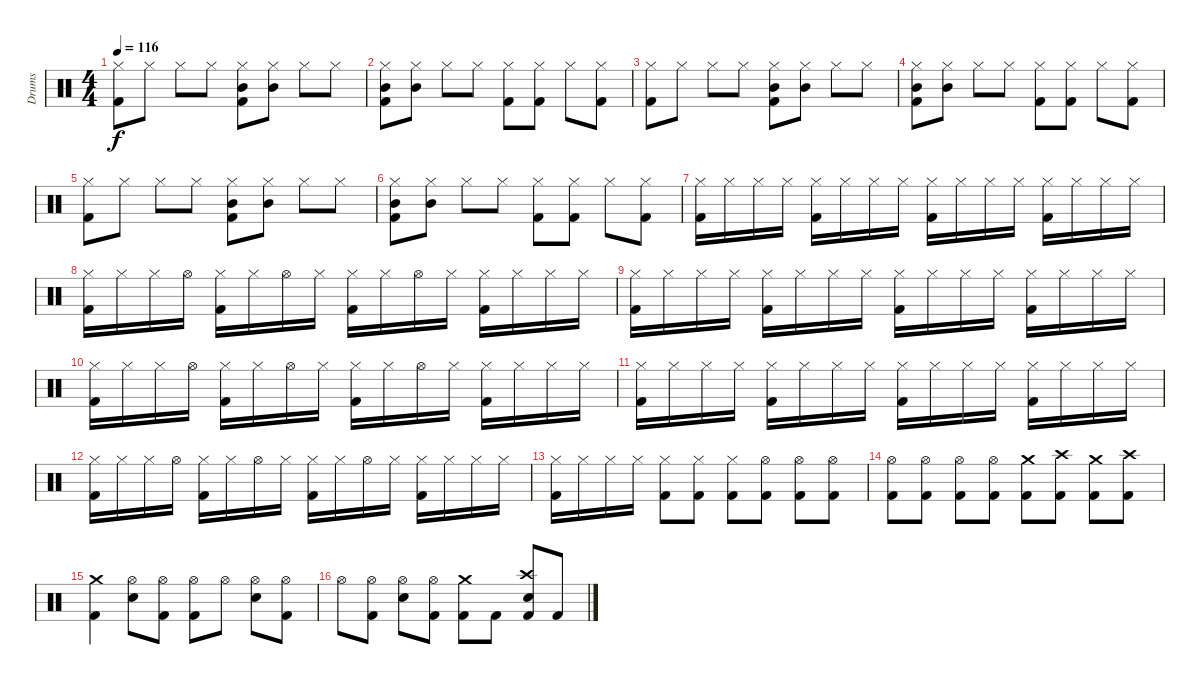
\track ("Drums" "Drums") {instrument percussion}
\staff {score}
\articulation defaults
\ts (4 4)
\tempo 116
\clef neutral
\ks c
("Kick (hit) 2" "Hi-Hat (closed)").8{dy f} "Hi-Hat (closed)".8 "Hi-Hat (closed)".8 "Hi-Hat (closed)".8 ("Kick (hit) 2" "Mid Tom (hit)" "Hi-Hat (closed)").8 ("Mid Tom (hit)" "Hi-Hat (closed)").8 "Hi-Hat (closed)".8 "Hi-Hat (closed)".8 |
("Kick (hit) 2" "Mid Tom (hit)" "Hi-Hat (closed)").8 ("Mid Tom (hit)" "Hi-Hat (closed)").8 "Hi-Hat (closed)".8 "Hi-Hat (closed)".8 ("Kick (hit) 2" "Hi-Hat (closed)").8 ("Kick (hit) 2" "Hi-Hat (closed)").8 "Hi-Hat (closed)".8 ("Kick (hit) 2" "Hi-Hat (closed)").8 |
("Kick (hit) 2" "Hi-Hat (closed)").8 "Hi-Hat (closed)".8 "Hi-Hat (closed)".8 "Hi-Hat (closed)".8 ("Kick (hit) 2" "Mid Tom (hit)" "Hi-Hat (closed)").8 ("Mid Tom (hit)" "Hi-Hat (closed)").8 "Hi-Hat (closed)".8 "Hi-Hat (closed)".8 |
("Kick (hit) 2" "Mid Tom (hit)" "Hi-Hat (closed)").8 ("Mid Tom (hit)" "Hi-Hat (closed)").8 "Hi-Hat (closed)".8 "Hi-Hat (closed)".8 ("Kick (hit) 2" "Hi-Hat (closed)").8 ("Kick (hit) 2" "Hi-Hat (closed)").8 "Hi-Hat (closed)".8 ("Kick (hit) 2" "Hi-Hat (closed)").8 |
("Kick (hit) 2" "Hi-Hat (closed)").8 "Hi-Hat (closed)".8 "Hi-Hat (closed)".8 "Hi-Hat (closed)".8 ("Kick (hit) 2" "Mid Tom (hit)" "Hi-Hat (closed)").8 ("Mid Tom (hit)" "Hi-Hat (closed)").8 "Hi-Hat (closed)".8 "Hi-Hat (closed)".8 |
("Kick (hit) 2" "Mid Tom (hit)" "Hi-Hat (closed)").8 ("Mid Tom (hit)" "Hi-Hat (closed)").8 "Hi-Hat (closed)".8 "Hi-Hat (closed)".8 ("Kick (hit) 2" "Hi-Hat (closed)").8 ("Kick (hit) 2" "Hi-Hat (closed)").8 "Hi-Hat (closed)".8 ("Kick (hit) 2" "Hi-Hat (closed)").8 |
("Kick (hit) 2" "Hi-Hat (closed)").16 "Hi-Hat (closed)".16 "Hi-Hat (closed)".16 "Hi-Hat (closed)".16 ("Kick (hit) 2" "Hi-Hat (closed)").16 "Hi-Hat (closed)".16 "Hi-Hat (closed)".16 "Hi-Hat (closed)".16 ("Kick (hit) 2" "Hi-Hat (closed)").16 "Hi-Hat (closed)".16 "Hi-Hat (closed)".16 "Hi-Hat (closed)".16 ("Kick (hit) 2" "Hi-Hat (closed)").16 "Hi-Hat (closed)".16 "Hi-Hat (closed)".16 "Hi-Hat (closed)".16 |
("Kick (hit) 2" "Hi-Hat (closed)").16 "Hi-Hat (closed)".16 "Hi-Hat (closed)".16 "Hi-Hat (open)".16 ("Kick (hit) 2" "Hi-Hat (closed)").16 "Hi-Hat (closed)".16 "Hi-Hat (open)".16 "Hi-Hat (closed)".16 ("Kick (hit) 2" "Hi-Hat (closed)").16 "Hi-Hat (closed)".16 "Hi-Hat (open)".16 "Hi-Hat (closed)".16 ("Kick (hit) 2" "Hi-Hat (closed)").16 "Hi-Hat (closed)".16 "Hi-Hat (closed)".16 "Hi-Hat (closed)".16 |
("Kick (hit) 2" "Hi-Hat (closed)").16 "Hi-Hat (closed)".16 "Hi-Hat (closed)".16 "Hi-Hat (closed)".16 ("Kick (hit) 2" "Hi-Hat (closed)").16 "Hi-Hat (closed)".16 "Hi-Hat (closed)".16 "Hi-Hat (closed)".16 ("Kick (hit) 2" "Hi-Hat (closed)").16 "Hi-Hat (closed)".16 "Hi-Hat (closed)".16 "Hi-Hat (closed)".16 ("Kick (hit) 2" "Hi-Hat (closed)").16 "Hi-Hat (closed)".16 "Hi-Hat (closed)".16 "Hi-Hat (closed)".16 |
("Kick (hit) 2" "Hi-Hat (closed)").16 "Hi-Hat (closed)".16 "Hi-Hat (closed)".16 "Hi-Hat (open)".16 ("Kick (hit) 2" "Hi-Hat (closed)").16 "Hi-Hat (closed)".16 "Hi-Hat (open)".16 "Hi-Hat (closed)".16 ("Kick (hit) 2" "Hi-Hat (closed)").16 "Hi-Hat (closed)".16 "Hi-Hat (open)".16 "Hi-Hat (closed)".16 ("Kick (hit) 2" "Hi-Hat (closed)").16 "Hi-Hat (closed)".16 "Hi-Hat (closed)".16 "Hi-Hat (closed)".16 |
("Kick (hit) 2" "Hi-Hat (closed)").16 "Hi-Hat (closed)".16 "Hi-Hat (closed)".16 "Hi-Hat (closed)".16 ("Kick (hit) 2" "Hi-Hat (closed)").16 "Hi-Hat (closed)".16 "Hi-Hat (closed)".16 "Hi-Hat (closed)".16 ("Kick (hit) 2" "Hi-Hat (closed)").16 "Hi-Hat (closed)".16 "Hi-Hat (closed)".16 "Hi-Hat (closed)".16 ("Kick (hit) 2" "Hi-Hat (closed)").16 "Hi-Hat (closed)".16 "Hi-Hat (closed)".16 "Hi-Hat (closed)".16 |
("Kick (hit) 2" "Hi-Hat (closed)").16 "Hi-Hat (closed)".16 "Hi-Hat (closed)".16 "Hi-Hat (open)".16 ("Kick (hit) 2" "Hi-Hat (closed)").16 "Hi-Hat (closed)".16 "Hi-Hat (open)".16 "Hi-Hat (closed)".16 ("Kick (hit) 2" "Hi-Hat (closed)").16 "Hi-Hat (closed)".16 "Hi-Hat (open)".16 "Hi-Hat (closed)".16 ("Kick (hit) 2" "Hi-Hat (closed)").16 "Hi-Hat (closed)".16 "Hi-Hat (closed)".16 "Hi-Hat (closed)".16 |
("Kick (hit) 2" "Hi-Hat (closed)").16 "Hi-Hat (closed)".16 "Hi-Hat (closed)".16 "Hi-Hat (closed)".16 ("Kick (hit) 2" "Hi-Hat (closed)").8 ("Kick (hit) 2" "Hi-Hat (closed)").8 ("Kick (hit) 2" "Hi-Hat (closed)").8 ("Kick (hit) 2" "Hi-Hat (open)").8 ("Kick (hit) 2" "Hi-Hat (open)").8 ("Kick (hit) 2" "Hi-Hat (open)").8 |
("Kick (hit) 2" "Hi-Hat (open)").8 ("Kick (hit) 2" "Hi-Hat (open)").8 ("Kick (hit) 2" "Hi-Hat (open)").8 ("Kick (hit) 2" "Hi-Hat (open)").8 ("Kick (hit) 2" "Crash medium (hit)").8 ("Kick (hit) 2" "Crash high (hit)").8 ("Kick (hit) 2" "Crash medium (hit)").8 ("Kick (hit) 2" "Crash high (hit)").8 |
("Kick (hit) 2" "Crash medium (hit)").4 ("Electric Snare (hit)" "Hi-Hat (open)").8 ("Kick (hit) 2" "Hi-Hat (open)").8 ("Kick (hit) 2" "Hi-Hat (open)").8 "Hi-Hat (open)".8 ("Electric Snare (hit)" "Hi-Hat (open)").8 ("Kick (hit) 2" "Hi-Hat (open)").8 |
"Hi-Hat (open)".8 ("Kick (hit) 2" "Hi-Hat (open)").8 ("Electric Snare (hit)" "Hi-Hat (open)").8 ("Kick (hit) 2" "Hi-Hat (open)").8 ("Kick (hit) 2" "Crash medium (hit)").8 "Kick (hit) 2".8 ("Kick (hit) 2" "Electric Snare (hit)" "Crash high (hit)").8 "Kick (hit) 2".8
